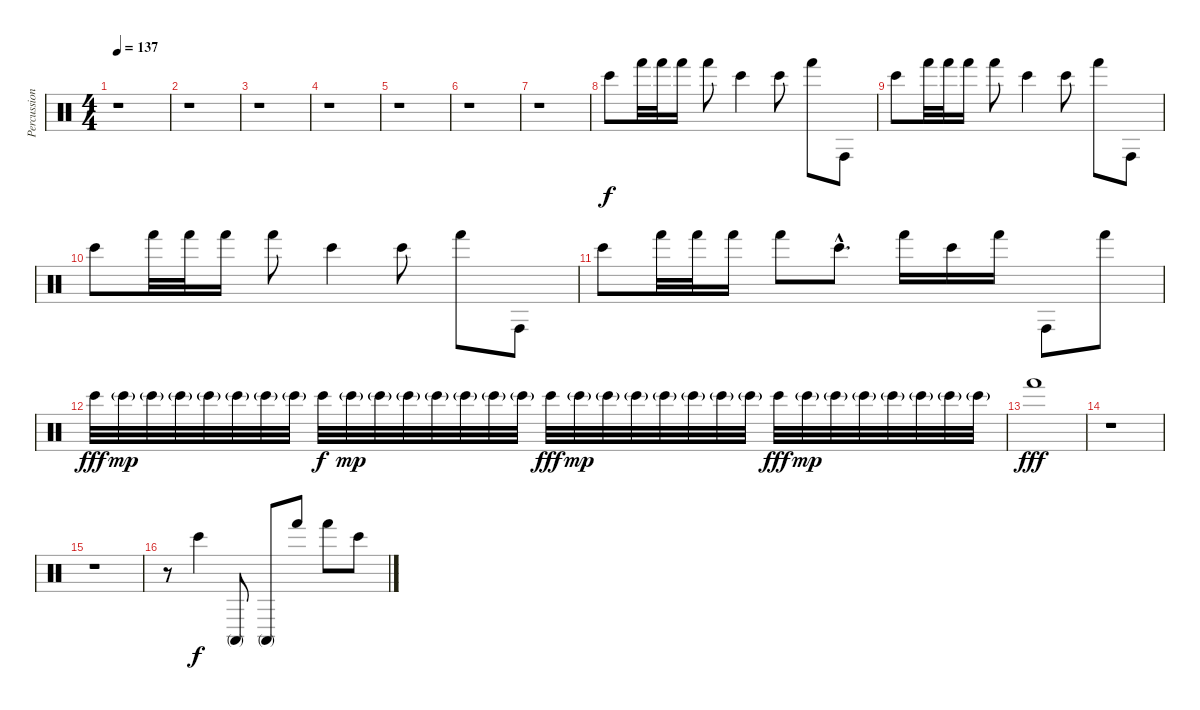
\track ("Percussions" "Percussion") {instrument percussion}
\staff {score}
\articulation defaults
\ts (4 4)
\tempo 137
\clef neutral
\ks c
r.1{dy f} |
r.1 |
r.1 |
r.1 |
r.1 |
r.1 |
r.1 |
"Bongo High (hit)".8 "Hand (hit)".32 "Hand (hit)".32 "Hand (hit)".16 "Hand (hit)".8 "Bongo High (hit)".4 "Bongo High (hit)".8 "Hand (hit)".8 "Conga high (hit)".8 |
"Bongo High (hit)".8 "Hand (hit)".32 "Hand (hit)".32 "Hand (hit)".16 "Hand (hit)".8 "Bongo High (hit)".4 "Bongo High (hit)".8 "Hand (hit)".8 "Conga high (hit)".8 |
"Bongo High (hit)".8 "Hand (hit)".32 "Hand (hit)".32 "Hand (hit)".16 "Hand (hit)".8 "Bongo High (hit)".4 "Bongo High (hit)".8 "Hand (hit)".8 "Conga high (hit)".8 |
"Bongo High (hit)".8 "Hand (hit)".32 "Hand (hit)".32 "Hand (hit)".16 "Hand (hit)".8 "Bongo High (hit)"{hac}.8{d} "Hand (hit)".16 "Bongo High (hit)".16 "Hand (hit)".16 "Conga high (hit)".8 "Hand (hit)".8 |
"Bongo High (hit)".32{dy fff} "Bongo High (hit)"{g}.32{dy mp} "Bongo High (hit)"{g}.32 "Bongo High (hit)"{g}.32 "Bongo High (hit)"{g}.32 "Bongo High (hit)"{g}.32 "Bongo High (hit)"{g}.32 "Bongo High (hit)"{g}.32 "Bongo High (hit)".32{dy f} "Bongo High (hit)"{g}.32{dy mp} "Bongo High (hit)"{g}.32 "Bongo High (hit)"{g}.32 "Bongo High (hit)"{g}.32 "Bongo High (hit)"{g}.32 "Bongo High (hit)"{g}.32 "Bongo High (hit)"{g}.32 "Bongo High (hit)".32{dy fff} "Bongo High (hit)"{g}.32{dy mp} "Bongo High (hit)"{g}.32 "Bongo High (hit)"{g}.32 "Bongo High (hit)"{g}.32 "Bongo High (hit)"{g}.32 "Bongo High (hit)"{g}.32 "Bongo High (hit)"{g}.32 "Bongo High (hit)".32{dy fff} "Bongo High (hit)"{g}.32{dy mp} "Bongo High (hit)"{g}.32 "Bongo High (hit)"{g}.32 "Bongo High (hit)"{g}.32 "Bongo High (hit)"{g}.32 "Bongo High (hit)"{g}.32 "Bongo High (hit)"{g}.32 |
"Hand (hit)".1{dy fff} |
r.1 |
r.1 |
r.8 "Bongo High (hit)".4{dy f} "Conga high (mute)".8 "Conga high (mute)".8 "Hand (hit)".8 "Hand (hit)".8 "Bongo High (hit)".8
